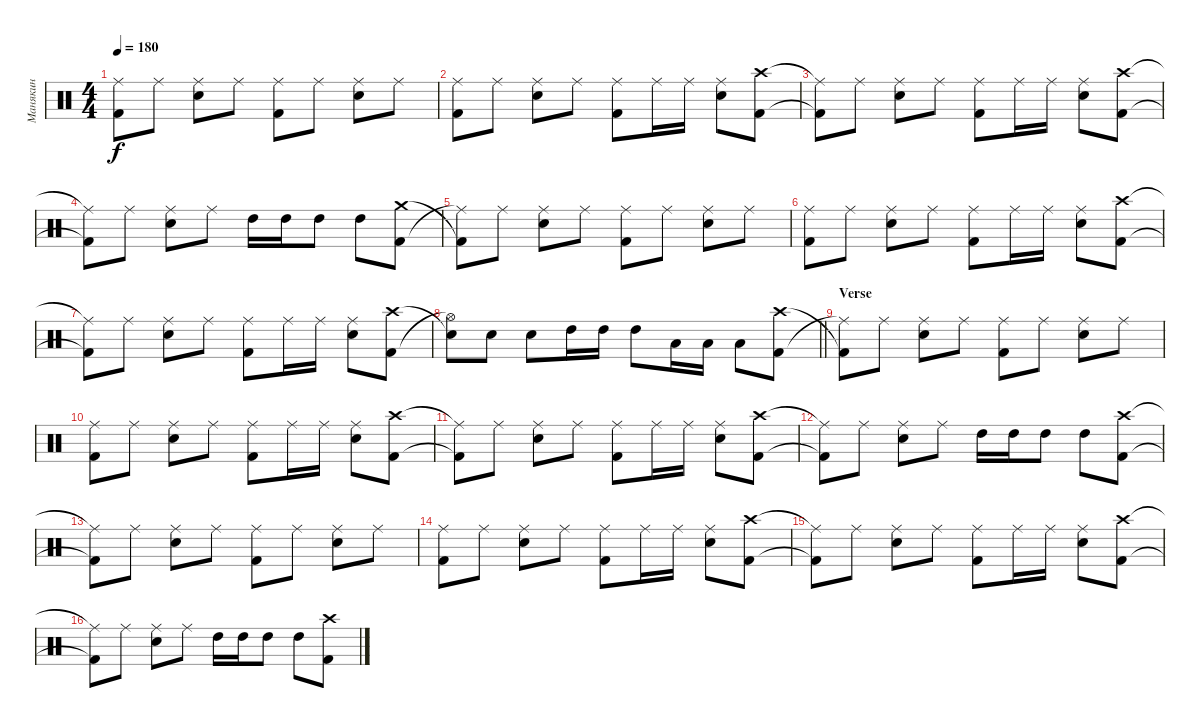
\track ("Манякин" "Манякин") {instrument percussion}
\staff {score}
\articulation defaults
\ts (4 4)
\tempo 180
\clef neutral
\ks c
("Ride (middle)"{t} "Kick (hit) 2"{t}).8{dy f} "Ride (middle)".8 ("Ride (middle)" "Snare (hit) 2").8 "Ride (middle)".8 ("Ride (middle)" "Kick (hit) 2").8 "Ride (middle)".8 ("Ride (middle)" "Snare (hit) 2").8 "Ride (middle)".8 |
("Kick (hit) 2" "Ride (middle)").8 "Ride (middle)".8 ("Snare (hit) 2" "Ride (middle)").8 "Ride (middle)".8 ("Kick (hit) 2" "Ride (middle)").8 "Ride (middle)".16 "Ride (middle)".16 ("Snare (hit) 2" "Ride (middle)").8 ("Kick (hit) 2" "Crash high (hit)").8 |
("Kick (hit) 2"{t} "Ride (middle)"{t}).8 "Ride (middle)".8 ("Snare (hit) 2" "Ride (middle)").8 "Ride (middle)".8 ("Kick (hit) 2" "Ride (middle)").8 "Ride (middle)".16 "Ride (middle)".16 ("Snare (hit) 2" "Ride (middle)").8 ("Kick (hit) 2" "Crash high (hit)").8 |
("Kick (hit) 2"{t} "Ride (middle)"{t}).8 "Ride (middle)".8 ("Snare (hit) 2" "Ride (middle)").8 "Ride (middle)".8 "High Tom (hit)".16 "High Tom (hit)".16 "High Tom (hit)".8 "High Tom (hit)".8 ("Crash medium (hit)" "Kick (hit) 2").8 |
("Kick (hit) 2"{t} "Ride (middle)"{t}).8 "Ride (middle)".8 ("Snare (hit) 2" "Ride (middle)").8 "Ride (middle)".8 ("Kick (hit) 2" "Ride (middle)").8 "Ride (middle)".8 ("Snare (hit) 2" "Ride (middle)").8 "Ride (middle)".8 |
("Kick (hit) 2" "Ride (middle)").8 "Ride (middle)".8 ("Snare (hit) 2" "Ride (middle)").8 "Ride (middle)".8 ("Kick (hit) 2" "Ride (middle)").8 "Ride (middle)".16 "Ride (middle)".16 ("Snare (hit) 2" "Ride (middle)").8 ("Kick (hit) 2" "Crash high (hit)").8 |
("Kick (hit) 2"{t} "Ride (middle)"{t}).8 "Ride (middle)".8 ("Snare (hit) 2" "Ride (middle)").8 "Ride (middle)".8 ("Kick (hit) 2" "Ride (middle)").8 "Ride (middle)".16 "Ride (middle)".16 ("Snare (hit) 2" "Ride (middle)").8 ("Kick (hit) 2" "Crash high (hit)").8 |
\barLineRight lightlight
("Hi-Hat (open)"{t} "Snare (hit)"{t}).8 "Snare (hit) 2".8 "Snare (hit) 2".8 "High Tom (hit)".16 "High Tom (hit)".16 "High Tom (hit)".8 "Low Tom (hit)".16 "Low Tom (hit)".16 "Low Tom (hit)".8 ("Kick (hit) 2" "Crash high (hit)").8 |
\section ("" "Verse")
("Ride (middle)"{t} "Kick (hit) 2"{t}).8 "Ride (middle)".8 ("Ride (middle)" "Snare (hit) 2").8 "Ride (middle)".8 ("Ride (middle)" "Kick (hit) 2").8 "Ride (middle)".8 ("Ride (middle)" "Snare (hit) 2").8 "Ride (middle)".8 |
("Kick (hit) 2" "Ride (middle)").8 "Ride (middle)".8 ("Snare (hit) 2" "Ride (middle)").8 "Ride (middle)".8 ("Kick (hit) 2" "Ride (middle)").8 "Ride (middle)".16 "Ride (middle)".16 ("Snare (hit) 2" "Ride (middle)").8 ("Kick (hit) 2" "Crash high (hit)").8 |
("Kick (hit) 2"{t} "Ride (middle)"{t}).8 "Ride (middle)".8 ("Snare (hit) 2" "Ride (middle)").8 "Ride (middle)".8 ("Kick (hit) 2" "Ride (middle)").8 "Ride (middle)".16 "Ride (middle)".16 ("Snare (hit) 2" "Ride (middle)").8 ("Kick (hit) 2" "Crash high (hit)").8 |
("Kick (hit) 2"{t} "Ride (middle)"{t}).8 "Ride (middle)".8 ("Snare (hit) 2" "Ride (middle)").8 "Ride (middle)".8 "High Tom (hit)".16 "High Tom (hit)".16 "High Tom (hit)".8 "High Tom (hit)".8 ("Crash high (hit)" "Kick (hit) 2").8 |
("Ride (middle)"{t} "Kick (hit) 2"{t}).8 "Ride (middle)".8 ("Ride (middle)" "Snare (hit) 2").8 "Ride (middle)".8 ("Ride (middle)" "Kick (hit) 2").8 "Ride (middle)".8 ("Ride (middle)" "Snare (hit) 2").8 "Ride (middle)".8 |
("Kick (hit) 2" "Ride (middle)").8 "Ride (middle)".8 ("Snare (hit) 2" "Ride (middle)").8 "Ride (middle)".8 ("Kick (hit) 2" "Ride (middle)").8 "Ride (middle)".16 "Ride (middle)".16 ("Snare (hit) 2" "Ride (middle)").8 ("Kick (hit) 2" "Crash high (hit)").8 |
("Kick (hit) 2"{t} "Ride (middle)"{t}).8 "Ride (middle)".8 ("Snare (hit) 2" "Ride (middle)").8 "Ride (middle)".8 ("Kick (hit) 2" "Ride (middle)").8 "Ride (middle)".16 "Ride (middle)".16 ("Snare (hit) 2" "Ride (middle)").8 ("Kick (hit) 2" "Crash high (hit)").8 |
("Kick (hit) 2"{t} "Ride (middle)"{t}).8 "Ride (middle)".8 ("Snare (hit) 2" "Ride (middle)").8 "Ride (middle)".8 "High Tom (hit)".16 "High Tom (hit)".16 "High Tom (hit)".8 "High Tom (hit)".8 ("Crash high (hit)" "Kick (hit) 2").8
